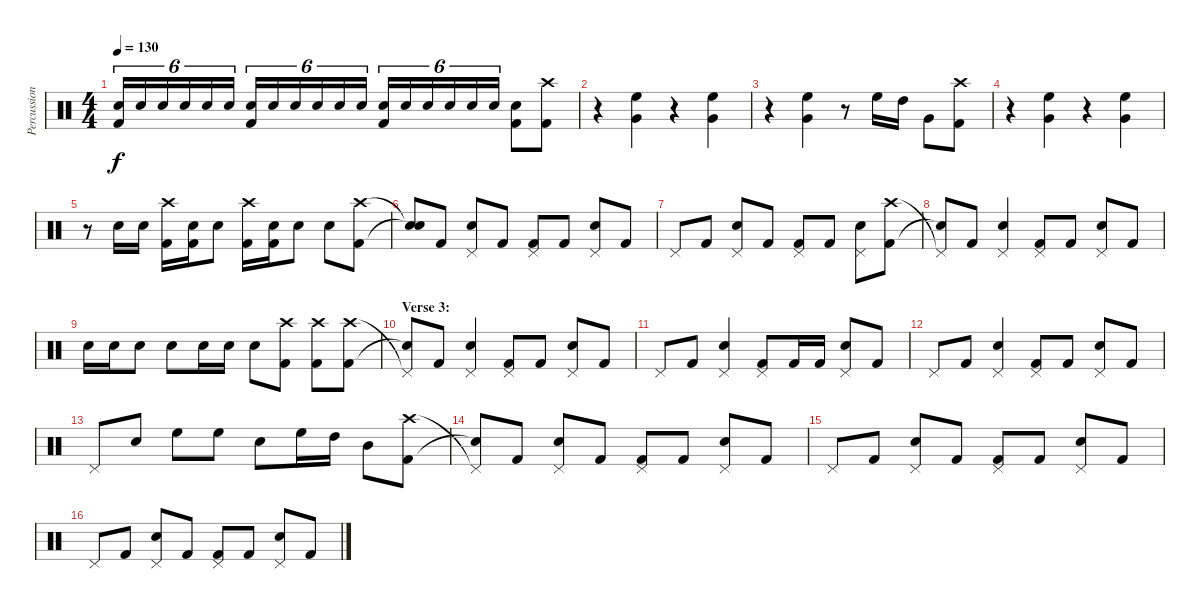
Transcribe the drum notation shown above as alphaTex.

\track ("Percussion" "Percussion") {instrument percussion}
\staff {score}
\articulation defaults
\ts (4 4)
\tempo 130
\clef neutral
\ks c
("Electric Snare (hit)" "Kick (hit) 2").16{tu (6 4) dy f} "Electric Snare (hit)".16{tu (6 4)} "Electric Snare (hit)".16{tu (6 4)} "Electric Snare (hit)".16{tu (6 4)} "Electric Snare (hit)".16{tu (6 4)} "Electric Snare (hit)".16{tu (6 4)} ("Electric Snare (hit)" "Kick (hit) 2").16{tu (6 4)} "Electric Snare (hit)".16{tu (6 4)} "Electric Snare (hit)".16{tu (6 4)} "Electric Snare (hit)".16{tu (6 4)} "Electric Snare (hit)".16{tu (6 4)} "Electric Snare (hit)".16{tu (6 4)} ("Electric Snare (hit)" "Kick (hit) 2").16{tu (6 4)} "Electric Snare (hit)".16{tu (6 4)} "Electric Snare (hit)".16{tu (6 4)} "Electric Snare (hit)".16{tu (6 4)} "Electric Snare (hit)".16{tu (6 4)} "Electric Snare (hit)".16{tu (6 4)} ("Electric Snare (hit)" "Kick (hit) 2").8 ("Crash high (hit)" "Kick (hit) 2").8 |
r.4 ("High Floor Tom (hit)" "Very Low Tom (hit)").4 r.4 ("High Floor Tom (hit)" "Very Low Tom (hit)").4 |
r.4 ("High Floor Tom (hit)" "Very Low Tom (hit)").4 r.8 "High Floor Tom (hit)".16 "High Tom (hit)".16 "Very Low Tom (hit)".8 ("Crash high (hit)" "Kick (hit) 2").8 |
r.4 ("High Floor Tom (hit)" "Very Low Tom (hit)").4 r.4 ("High Floor Tom (hit)" "Very Low Tom (hit)").4 |
r.8 "Electric Snare (hit)".16 "Electric Snare (hit)".16 ("Crash high (hit)" "Kick (hit) 2").16 ("Electric Snare (hit)" "Kick (hit) 2").16 "Electric Snare (hit)".8 ("Crash high (hit)" "Kick (hit) 2").16 ("Electric Snare (hit)" "Kick (hit) 2").16 "Electric Snare (hit)".8 "Electric Snare (hit)".8 ("Crash high (hit)" "Kick (hit) 2").8 |
("Snare (hit)"{t} "Snare (hit)"{t}).8 "Kick (hit) 2".8 ("Pedal Hi-Hat (hit)" "Electric Snare (hit)").8 "Kick (hit) 2".8 ("Pedal Hi-Hat (hit)" "Kick (hit) 2").8 "Kick (hit) 2".8 ("Pedal Hi-Hat (hit)" "Electric Snare (hit)").8 "Kick (hit) 2".8 |
"Pedal Hi-Hat (hit)".8 "Kick (hit) 2".8 ("Pedal Hi-Hat (hit)" "Electric Snare (hit)").8 "Kick (hit) 2".8 ("Pedal Hi-Hat (hit)" "Kick (hit) 2").8 "Kick (hit) 2".8 ("Pedal Hi-Hat (hit)" "Electric Snare (hit)").8 ("Crash high (hit)" "Kick (hit) 2").8 |
("Pedal Hi-Hat (hit)"{t} "Snare (hit)"{t}).8 "Kick (hit) 2".8 ("Pedal Hi-Hat (hit)" "Electric Snare (hit)").4 ("Pedal Hi-Hat (hit)" "Kick (hit) 2").8 "Kick (hit) 2".8 ("Pedal Hi-Hat (hit)" "Electric Snare (hit)").8 "Kick (hit) 2".8 |
"Electric Snare (hit)".16 "Electric Snare (hit)".16 "Electric Snare (hit)".8 "Electric Snare (hit)".8 "Electric Snare (hit)".16 "Electric Snare (hit)".16 "Electric Snare (hit)".8 ("Crash high (hit)" "Kick (hit) 2").8 ("Crash high (hit)" "Kick (hit) 2").8 ("Crash high (hit)" "Kick (hit) 2").8 |
\section ("" "Verse 3:")
("Pedal Hi-Hat (hit)"{t} "Snare (hit)"{t}).8 "Kick (hit) 2".8 ("Pedal Hi-Hat (hit)" "Electric Snare (hit)").4 ("Pedal Hi-Hat (hit)" "Kick (hit) 2").8 "Kick (hit) 2".8 ("Pedal Hi-Hat (hit)" "Electric Snare (hit)").8 "Kick (hit) 2".8 |
"Pedal Hi-Hat (hit)".8 "Kick (hit) 2".8 ("Pedal Hi-Hat (hit)" "Electric Snare (hit)").4 ("Pedal Hi-Hat (hit)" "Kick (hit) 2").8 "Kick (hit) 2".16 "Kick (hit) 2".16 ("Pedal Hi-Hat (hit)" "Electric Snare (hit)").8 "Kick (hit) 2".8 |
"Pedal Hi-Hat (hit)".8 "Kick (hit) 2".8 ("Pedal Hi-Hat (hit)" "Electric Snare (hit)").4 ("Pedal Hi-Hat (hit)" "Kick (hit) 2").8 "Kick (hit) 2".8 ("Pedal Hi-Hat (hit)" "Electric Snare (hit)").8 "Kick (hit) 2".8 |
"Pedal Hi-Hat (hit)".8 "Electric Snare (hit)".8 "High Floor Tom (hit)".8 "High Floor Tom (hit)".8 "Electric Snare (hit)".8 "High Floor Tom (hit)".16 "High Tom (hit)".16 "Mid Tom (hit)".8 ("Crash high (hit)" "Kick (hit) 2").8 |
("Pedal Hi-Hat (hit)"{t} "Snare (hit)"{t}).8 "Kick (hit) 2".8 ("Pedal Hi-Hat (hit)" "Electric Snare (hit)").8 "Kick (hit) 2".8 ("Pedal Hi-Hat (hit)" "Kick (hit) 2").8 "Kick (hit) 2".8 ("Pedal Hi-Hat (hit)" "Electric Snare (hit)").8 "Kick (hit) 2".8 |
"Pedal Hi-Hat (hit)".8 "Kick (hit) 2".8 ("Pedal Hi-Hat (hit)" "Electric Snare (hit)").8 "Kick (hit) 2".8 ("Pedal Hi-Hat (hit)" "Kick (hit) 2").8 "Kick (hit) 2".8 ("Pedal Hi-Hat (hit)" "Electric Snare (hit)").8 "Kick (hit) 2".8 |
"Pedal Hi-Hat (hit)".8 "Kick (hit) 2".8 ("Pedal Hi-Hat (hit)" "Electric Snare (hit)").8 "Kick (hit) 2".8 ("Pedal Hi-Hat (hit)" "Kick (hit) 2").8 "Kick (hit) 2".8 ("Pedal Hi-Hat (hit)" "Electric Snare (hit)").8 "Kick (hit) 2".8
